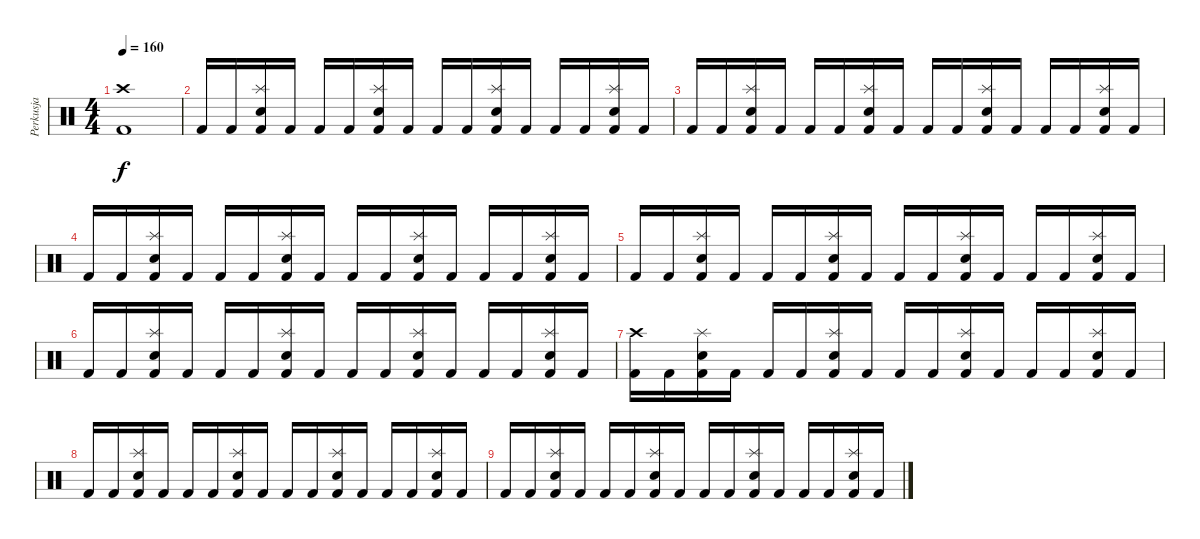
\track ("Perkusja" "Perkusja") {instrument percussion}
\staff {score}
\articulation defaults
\ts (4 4)
\tempo 160
\clef neutral
\ks c
("Crash high (hit)" "Kick (hit) 2").1{dy f} |
"Kick (hit) 2".16 "Kick (hit) 2".16 ("Splash (hit)" "Snare (hit) 2" "Kick (hit) 2").16 "Kick (hit) 2".16 "Kick (hit) 2".16 "Kick (hit) 2".16 ("Splash (hit)" "Snare (hit) 2" "Kick (hit) 2").16 "Kick (hit) 2".16 "Kick (hit) 2".16 "Kick (hit) 2".16 ("Splash (hit)" "Snare (hit) 2" "Kick (hit) 2").16 "Kick (hit) 2".16 "Kick (hit) 2".16 "Kick (hit) 2".16 ("Splash (hit)" "Snare (hit) 2" "Kick (hit) 2").16 "Kick (hit) 2".16 |
"Kick (hit) 2".16 "Kick (hit) 2".16 ("Splash (hit)" "Snare (hit) 2" "Kick (hit) 2").16 "Kick (hit) 2".16 "Kick (hit) 2".16 "Kick (hit) 2".16 ("Splash (hit)" "Snare (hit) 2" "Kick (hit) 2").16 "Kick (hit) 2".16 "Kick (hit) 2".16 "Kick (hit) 2".16 ("Splash (hit)" "Snare (hit) 2" "Kick (hit) 2").16 "Kick (hit) 2".16 "Kick (hit) 2".16 "Kick (hit) 2".16 ("Splash (hit)" "Snare (hit) 2" "Kick (hit) 2").16 "Kick (hit) 2".16 |
"Kick (hit) 2".16 "Kick (hit) 2".16 ("Splash (hit)" "Snare (hit) 2" "Kick (hit) 2").16 "Kick (hit) 2".16 "Kick (hit) 2".16 "Kick (hit) 2".16 ("Splash (hit)" "Snare (hit) 2" "Kick (hit) 2").16 "Kick (hit) 2".16 "Kick (hit) 2".16 "Kick (hit) 2".16 ("Splash (hit)" "Snare (hit) 2" "Kick (hit) 2").16 "Kick (hit) 2".16 "Kick (hit) 2".16 "Kick (hit) 2".16 ("Splash (hit)" "Snare (hit) 2" "Kick (hit) 2").16 "Kick (hit) 2".16 |
"Kick (hit) 2".16 "Kick (hit) 2".16 ("Splash (hit)" "Snare (hit) 2" "Kick (hit) 2").16 "Kick (hit) 2".16 "Kick (hit) 2".16 "Kick (hit) 2".16 ("Splash (hit)" "Snare (hit) 2" "Kick (hit) 2").16 "Kick (hit) 2".16 "Kick (hit) 2".16 "Kick (hit) 2".16 ("Splash (hit)" "Snare (hit) 2" "Kick (hit) 2").16 "Kick (hit) 2".16 "Kick (hit) 2".16 "Kick (hit) 2".16 ("Splash (hit)" "Snare (hit) 2" "Kick (hit) 2").16 "Kick (hit) 2".16 |
"Kick (hit) 2".16 "Kick (hit) 2".16 ("Splash (hit)" "Snare (hit) 2" "Kick (hit) 2").16 "Kick (hit) 2".16 "Kick (hit) 2".16 "Kick (hit) 2".16 ("Splash (hit)" "Snare (hit) 2" "Kick (hit) 2").16 "Kick (hit) 2".16 "Kick (hit) 2".16 "Kick (hit) 2".16 ("Splash (hit)" "Snare (hit) 2" "Kick (hit) 2").16 "Kick (hit) 2".16 "Kick (hit) 2".16 "Kick (hit) 2".16 ("Splash (hit)" "Snare (hit) 2" "Kick (hit) 2").16 "Kick (hit) 2".16 |
("Crash high (hit)" "Kick (hit) 2").16 "Kick (hit) 2".16 ("Splash (hit)" "Snare (hit) 2" "Kick (hit) 2").16 "Kick (hit) 2".16 "Kick (hit) 2".16 "Kick (hit) 2".16 ("Splash (hit)" "Snare (hit) 2" "Kick (hit) 2").16 "Kick (hit) 2".16 "Kick (hit) 2".16 "Kick (hit) 2".16 ("Splash (hit)" "Snare (hit) 2" "Kick (hit) 2").16 "Kick (hit) 2".16 "Kick (hit) 2".16 "Kick (hit) 2".16 ("Splash (hit)" "Snare (hit) 2" "Kick (hit) 2").16 "Kick (hit) 2".16 |
"Kick (hit) 2".16 "Kick (hit) 2".16 ("Splash (hit)" "Snare (hit) 2" "Kick (hit) 2").16 "Kick (hit) 2".16 "Kick (hit) 2".16 "Kick (hit) 2".16 ("Splash (hit)" "Snare (hit) 2" "Kick (hit) 2").16 "Kick (hit) 2".16 "Kick (hit) 2".16 "Kick (hit) 2".16 ("Splash (hit)" "Snare (hit) 2" "Kick (hit) 2").16 "Kick (hit) 2".16 "Kick (hit) 2".16 "Kick (hit) 2".16 ("Splash (hit)" "Snare (hit) 2" "Kick (hit) 2").16 "Kick (hit) 2".16 |
"Kick (hit) 2".16 "Kick (hit) 2".16 ("Splash (hit)" "Snare (hit) 2" "Kick (hit) 2").16 "Kick (hit) 2".16 "Kick (hit) 2".16 "Kick (hit) 2".16 ("Splash (hit)" "Snare (hit) 2" "Kick (hit) 2").16 "Kick (hit) 2".16 "Kick (hit) 2".16 "Kick (hit) 2".16 ("Splash (hit)" "Snare (hit) 2" "Kick (hit) 2").16 "Kick (hit) 2".16 "Kick (hit) 2".16 "Kick (hit) 2".16 ("Splash (hit)" "Snare (hit) 2" "Kick (hit) 2").16 "Kick (hit) 2".16
